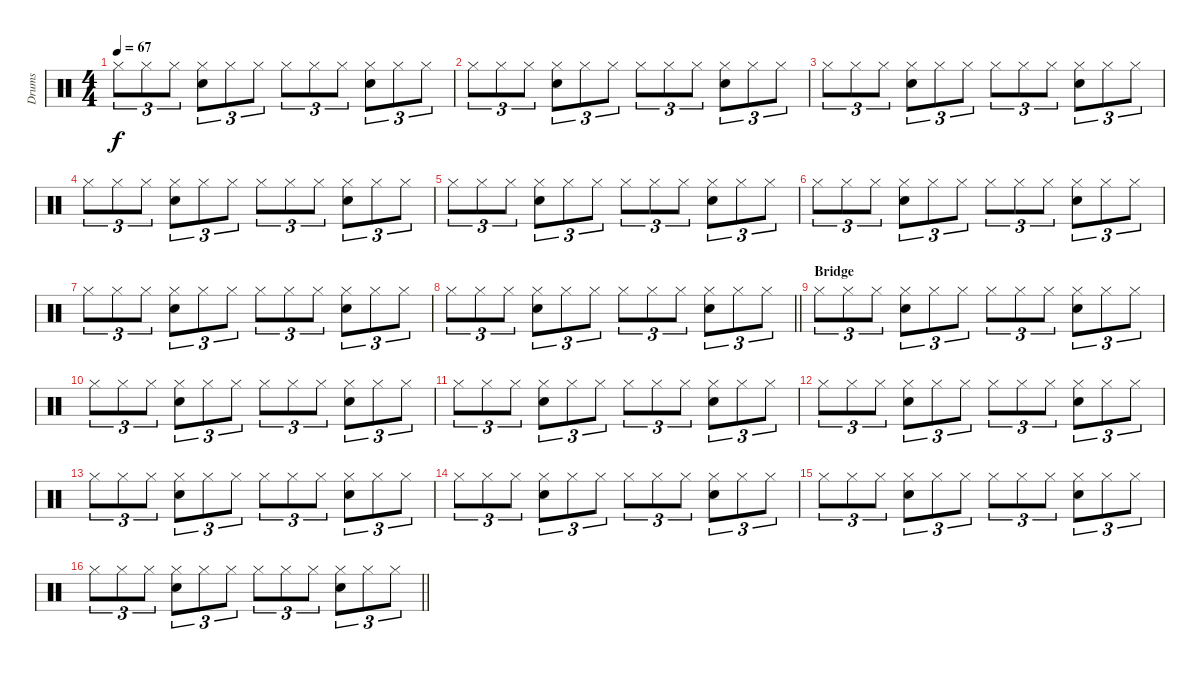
\track ("Drums" "Drums") {instrument percussion}
\staff {score}
\articulation defaults
\ts (4 4)
\tempo 67
\clef neutral
\ks c "Hi-Hat (closed)".8{tu (3 2) dy f} "Hi-Hat (closed)".8{tu (3 2)} "Hi-Hat (closed)".8{tu (3 2)}
("Hi-Hat (closed)" "Snare (hit) 2").8{tu (3 2)} "Hi-Hat (closed)".8{tu (3 2)} "Hi-Hat (closed)".8{tu (3 2)} "Hi-Hat (closed)".8{tu (3 2)} "Hi-Hat (closed)".8{tu (3 2)} "Hi-Hat (closed)".8{tu (3 2)} ("Hi-Hat (closed)" "Snare (hit) 2").8{tu (3 2)} "Hi-Hat (closed)".8{tu (3 2)} "Hi-Hat (closed)".8{tu (3 2)} |
"Hi-Hat (closed)".8{tu (3 2)} "Hi-Hat (closed)".8{tu (3 2)} "Hi-Hat (closed)".8{tu (3 2)} ("Hi-Hat (closed)" "Snare (hit) 2").8{tu (3 2)} "Hi-Hat (closed)".8{tu (3 2)} "Hi-Hat (closed)".8{tu (3 2)} "Hi-Hat (closed)".8{tu (3 2)} "Hi-Hat (closed)".8{tu (3 2)} "Hi-Hat (closed)".8{tu (3 2)} ("Hi-Hat (closed)" "Snare (hit) 2").8{tu (3 2)} "Hi-Hat (closed)".8{tu (3 2)} "Hi-Hat (closed)".8{tu (3 2)} |
"Hi-Hat (closed)".8{tu (3 2)} "Hi-Hat (closed)".8{tu (3 2)} "Hi-Hat (closed)".8{tu (3 2)} ("Hi-Hat (closed)" "Snare (hit) 2").8{tu (3 2)} "Hi-Hat (closed)".8{tu (3 2)} "Hi-Hat (closed)".8{tu (3 2)} "Hi-Hat (closed)".8{tu (3 2)} "Hi-Hat (closed)".8{tu (3 2)} "Hi-Hat (closed)".8{tu (3 2)} ("Hi-Hat (closed)" "Snare (hit) 2").8{tu (3 2)} "Hi-Hat (closed)".8{tu (3 2)} "Hi-Hat (closed)".8{tu (3 2)} |
"Hi-Hat (closed)".8{tu (3 2)} "Hi-Hat (closed)".8{tu (3 2)} "Hi-Hat (closed)".8{tu (3 2)} ("Hi-Hat (closed)" "Snare (hit) 2").8{tu (3 2)} "Hi-Hat (closed)".8{tu (3 2)} "Hi-Hat (closed)".8{tu (3 2)} "Hi-Hat (closed)".8{tu (3 2)} "Hi-Hat (closed)".8{tu (3 2)} "Hi-Hat (closed)".8{tu (3 2)} ("Hi-Hat (closed)" "Snare (hit) 2").8{tu (3 2)} "Hi-Hat (closed)".8{tu (3 2)} "Hi-Hat (closed)".8{tu (3 2)} |
"Hi-Hat (closed)".8{tu (3 2)} "Hi-Hat (closed)".8{tu (3 2)} "Hi-Hat (closed)".8{tu (3 2)} ("Hi-Hat (closed)" "Snare (hit) 2").8{tu (3 2)} "Hi-Hat (closed)".8{tu (3 2)} "Hi-Hat (closed)".8{tu (3 2)} "Hi-Hat (closed)".8{tu (3 2)} "Hi-Hat (closed)".8{tu (3 2)} "Hi-Hat (closed)".8{tu (3 2)} ("Hi-Hat (closed)" "Snare (hit) 2").8{tu (3 2)} "Hi-Hat (closed)".8{tu (3 2)} "Hi-Hat (closed)".8{tu (3 2)} |
"Hi-Hat (closed)".8{tu (3 2)} "Hi-Hat (closed)".8{tu (3 2)} "Hi-Hat (closed)".8{tu (3 2)} ("Hi-Hat (closed)" "Snare (hit) 2").8{tu (3 2)} "Hi-Hat (closed)".8{tu (3 2)} "Hi-Hat (closed)".8{tu (3 2)} "Hi-Hat (closed)".8{tu (3 2)} "Hi-Hat (closed)".8{tu (3 2)} "Hi-Hat (closed)".8{tu (3 2)} ("Hi-Hat (closed)" "Snare (hit) 2").8{tu (3 2)} "Hi-Hat (closed)".8{tu (3 2)} "Hi-Hat (closed)".8{tu (3 2)} |
"Hi-Hat (closed)".8{tu (3 2)} "Hi-Hat (closed)".8{tu (3 2)} "Hi-Hat (closed)".8{tu (3 2)} ("Hi-Hat (closed)" "Snare (hit) 2").8{tu (3 2)} "Hi-Hat (closed)".8{tu (3 2)} "Hi-Hat (closed)".8{tu (3 2)} "Hi-Hat (closed)".8{tu (3 2)} "Hi-Hat (closed)".8{tu (3 2)} "Hi-Hat (closed)".8{tu (3 2)} ("Hi-Hat (closed)" "Snare (hit) 2").8{tu (3 2)} "Hi-Hat (closed)".8{tu (3 2)} "Hi-Hat (closed)".8{tu (3 2)} |
\barLineRight lightlight "Hi-Hat (closed)".8{tu (3 2)} "Hi-Hat (closed)".8{tu (3 2)} "Hi-Hat (closed)".8{tu (3 2)}
("Hi-Hat (closed)" "Snare (hit) 2").8{tu (3 2)} "Hi-Hat (closed)".8{tu (3 2)} "Hi-Hat (closed)".8{tu (3 2)} "Hi-Hat (closed)".8{tu (3 2)} "Hi-Hat (closed)".8{tu (3 2)} "Hi-Hat (closed)".8{tu (3 2)} ("Hi-Hat (closed)" "Snare (hit) 2").8{tu (3 2)} "Hi-Hat (closed)".8{tu (3 2)} "Hi-Hat (closed)".8{tu (3 2)} |
\section ("" "Bridge")
"Hi-Hat (closed)".8{tu (3 2)} "Hi-Hat (closed)".8{tu (3 2)} "Hi-Hat (closed)".8{tu (3 2)} ("Hi-Hat (closed)" "Snare (hit) 2").8{tu (3 2)} "Hi-Hat (closed)".8{tu (3 2)} "Hi-Hat (closed)".8{tu (3 2)} "Hi-Hat (closed)".8{tu (3 2)} "Hi-Hat (closed)".8{tu (3 2)} "Hi-Hat (closed)".8{tu (3 2)} ("Hi-Hat (closed)" "Snare (hit) 2").8{tu (3 2)} "Hi-Hat (closed)".8{tu (3 2)} "Hi-Hat (closed)".8{tu (3 2)} |
"Hi-Hat (closed)".8{tu (3 2)} "Hi-Hat (closed)".8{tu (3 2)} "Hi-Hat (closed)".8{tu (3 2)} ("Hi-Hat (closed)" "Snare (hit) 2").8{tu (3 2)} "Hi-Hat (closed)".8{tu (3 2)} "Hi-Hat (closed)".8{tu (3 2)} "Hi-Hat (closed)".8{tu (3 2)} "Hi-Hat (closed)".8{tu (3 2)} "Hi-Hat (closed)".8{tu (3 2)} ("Hi-Hat (closed)" "Snare (hit) 2").8{tu (3 2)} "Hi-Hat (closed)".8{tu (3 2)} "Hi-Hat (closed)".8{tu (3 2)} |
"Hi-Hat (closed)".8{tu (3 2)} "Hi-Hat (closed)".8{tu (3 2)} "Hi-Hat (closed)".8{tu (3 2)} ("Hi-Hat (closed)" "Snare (hit) 2").8{tu (3 2)} "Hi-Hat (closed)".8{tu (3 2)} "Hi-Hat (closed)".8{tu (3 2)} "Hi-Hat (closed)".8{tu (3 2)} "Hi-Hat (closed)".8{tu (3 2)} "Hi-Hat (closed)".8{tu (3 2)} ("Hi-Hat (closed)" "Snare (hit) 2").8{tu (3 2)} "Hi-Hat (closed)".8{tu (3 2)} "Hi-Hat (closed)".8{tu (3 2)} |
"Hi-Hat (closed)".8{tu (3 2)} "Hi-Hat (closed)".8{tu (3 2)} "Hi-Hat (closed)".8{tu (3 2)} ("Hi-Hat (closed)" "Snare (hit) 2").8{tu (3 2)} "Hi-Hat (closed)".8{tu (3 2)} "Hi-Hat (closed)".8{tu (3 2)} "Hi-Hat (closed)".8{tu (3 2)} "Hi-Hat (closed)".8{tu (3 2)} "Hi-Hat (closed)".8{tu (3 2)} ("Hi-Hat (closed)" "Snare (hit) 2").8{tu (3 2)} "Hi-Hat (closed)".8{tu (3 2)} "Hi-Hat (closed)".8{tu (3 2)} |
"Hi-Hat (closed)".8{tu (3 2)} "Hi-Hat (closed)".8{tu (3 2)} "Hi-Hat (closed)".8{tu (3 2)} ("Hi-Hat (closed)" "Snare (hit) 2").8{tu (3 2)} "Hi-Hat (closed)".8{tu (3 2)} "Hi-Hat (closed)".8{tu (3 2)} "Hi-Hat (closed)".8{tu (3 2)} "Hi-Hat (closed)".8{tu (3 2)} "Hi-Hat (closed)".8{tu (3 2)} ("Hi-Hat (closed)" "Snare (hit) 2").8{tu (3 2)} "Hi-Hat (closed)".8{tu (3 2)} "Hi-Hat (closed)".8{tu (3 2)} |
"Hi-Hat (closed)".8{tu (3 2)} "Hi-Hat (closed)".8{tu (3 2)} "Hi-Hat (closed)".8{tu (3 2)} ("Hi-Hat (closed)" "Snare (hit) 2").8{tu (3 2)} "Hi-Hat (closed)".8{tu (3 2)} "Hi-Hat (closed)".8{tu (3 2)} "Hi-Hat (closed)".8{tu (3 2)} "Hi-Hat (closed)".8{tu (3 2)} "Hi-Hat (closed)".8{tu (3 2)} ("Hi-Hat (closed)" "Snare (hit) 2").8{tu (3 2)} "Hi-Hat (closed)".8{tu (3 2)} "Hi-Hat (closed)".8{tu (3 2)} |
"Hi-Hat (closed)".8{tu (3 2)} "Hi-Hat (closed)".8{tu (3 2)} "Hi-Hat (closed)".8{tu (3 2)} ("Hi-Hat (closed)" "Snare (hit) 2").8{tu (3 2)} "Hi-Hat (closed)".8{tu (3 2)} "Hi-Hat (closed)".8{tu (3 2)} "Hi-Hat (closed)".8{tu (3 2)} "Hi-Hat (closed)".8{tu (3 2)} "Hi-Hat (closed)".8{tu (3 2)} ("Hi-Hat (closed)" "Snare (hit) 2").8{tu (3 2)} "Hi-Hat (closed)".8{tu (3 2)} "Hi-Hat (closed)".8{tu (3 2)} |
\barLineRight lightlight "Hi-Hat (closed)".8{tu (3 2)} "Hi-Hat (closed)".8{tu (3 2)} "Hi-Hat (closed)".8{tu (3 2)}
("Hi-Hat (closed)" "Snare (hit) 2").8{tu (3 2)} "Hi-Hat (closed)".8{tu (3 2)} "Hi-Hat (closed)".8{tu (3 2)} "Hi-Hat (closed)".8{tu (3 2)} "Hi-Hat (closed)".8{tu (3 2)} "Hi-Hat (closed)".8{tu (3 2)} ("Hi-Hat (closed)" "Snare (hit) 2").8{tu (3 2)} "Hi-Hat (closed)".8{tu (3 2)} "Hi-Hat (closed)".8{tu (3 2)}
